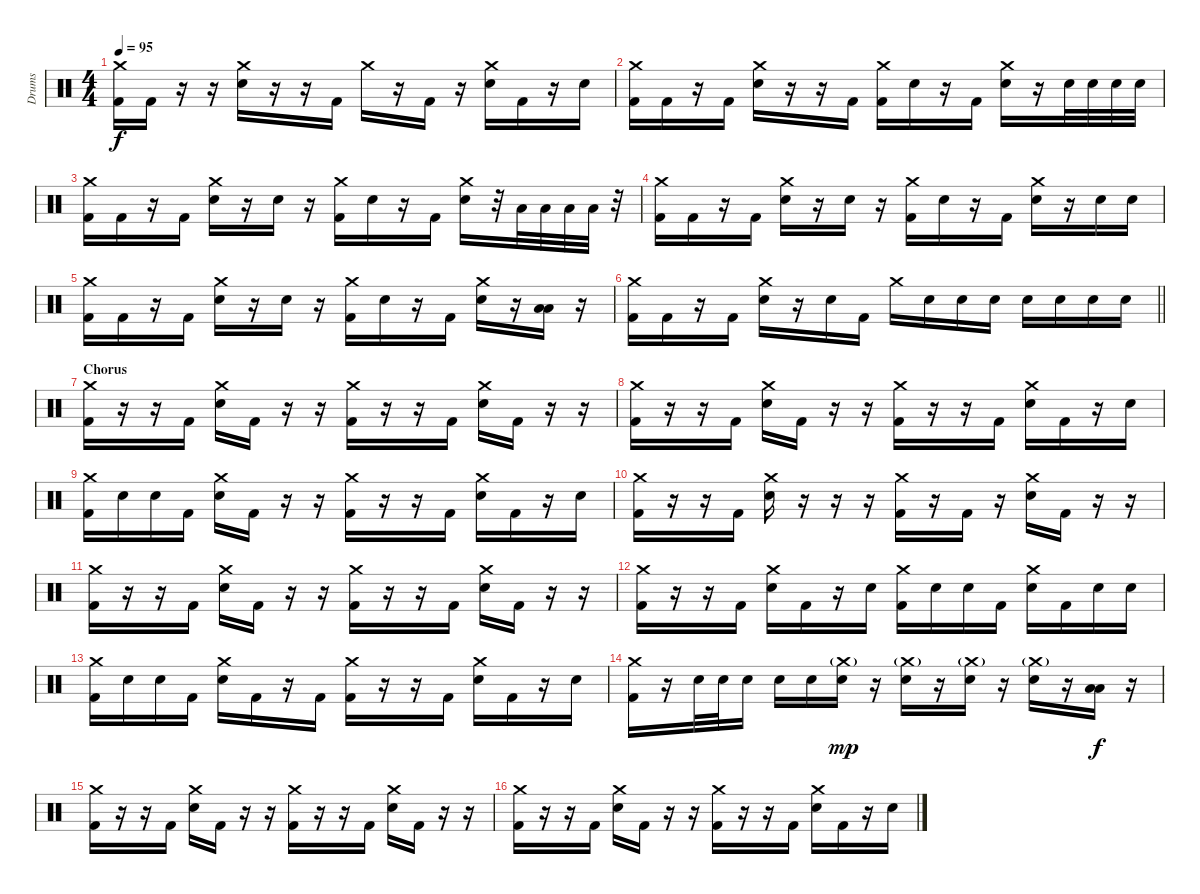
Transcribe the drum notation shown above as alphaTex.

\track ("Drums" "Drums") {instrument percussion}
\staff {score}
\articulation defaults
\ts (4 4)
\tempo 95
\clef neutral
\ks c
("Crash medium (hit)" "Kick (hit) 2").16{dy f} "Kick (hit) 2".16 r.16 r.16 ("Crash medium (hit)" "Electric Snare (hit)").16 r.16 r.16 "Kick (hit) 2".16 "Crash medium (hit)".16 r.16 "Kick (hit) 2".16 r.16 ("Crash medium (hit)" "Electric Snare (hit)").16 "Kick (hit) 2".16 r.16 "Electric Snare (hit)".16 |
("Crash medium (hit)" "Kick (hit) 2").16 "Kick (hit) 2".16 r.16 "Kick (hit) 2".16 ("Crash medium (hit)" "Electric Snare (hit)").16 r.16 r.16 "Kick (hit) 2".16 ("Crash medium (hit)" "Kick (hit) 2").16 "Electric Snare (hit)".16 r.16 "Kick (hit) 2".16 ("Crash medium (hit)" "Electric Snare (hit)").16 r.16 "Electric Snare (hit)".32 "Electric Snare (hit)".32 "Electric Snare (hit)".32 "Electric Snare (hit)".32 |
("Crash medium (hit)" "Kick (hit) 2").16 "Kick (hit) 2".16 r.16 "Kick (hit) 2".16 ("Crash medium (hit)" "Electric Snare (hit)").16 r.16 "Electric Snare (hit)".16 r.16 ("Crash medium (hit)" "Kick (hit) 2").16 "Electric Snare (hit)".16 r.16 "Kick (hit) 2".16 ("Crash medium (hit)" "Electric Snare (hit)").16 r.32 "Low Tom (hit)".32 "Low Tom (hit)".32 "Low Tom (hit)".32 "Low Tom (hit)".32 r.32 |
("Crash medium (hit)" "Kick (hit) 2").16 "Kick (hit) 2".16 r.16 "Kick (hit) 2".16 ("Crash medium (hit)" "Electric Snare (hit)").16 r.16 "Electric Snare (hit)".16 r.16 ("Crash medium (hit)" "Kick (hit) 2").16 "Electric Snare (hit)".16 r.16 "Kick (hit) 2".16 ("Crash medium (hit)" "Electric Snare (hit)").16 r.16 "Electric Snare (hit)".16 "Electric Snare (hit)".16 |
("Crash medium (hit)" "Kick (hit) 2").16 "Kick (hit) 2".16 r.16 "Kick (hit) 2".16 ("Crash medium (hit)" "Electric Snare (hit)").16 r.16 "Electric Snare (hit)".16 r.16 ("Crash medium (hit)" "Kick (hit) 2").16 "Electric Snare (hit)".16 r.16 "Kick (hit) 2".16 ("Crash medium (hit)" "Electric Snare (hit)").16 r.16 ("Low Tom (hit)" "Low Tom (hit)").16 r.16 |
\barLineRight lightlight
("Crash medium (hit)" "Kick (hit) 2").16 "Kick (hit) 2".16 r.16 "Kick (hit) 2".16 ("Crash medium (hit)" "Electric Snare (hit)").16 r.16 "Electric Snare (hit)".16 "Kick (hit) 2".16 "Crash medium (hit)".16 "Electric Snare (hit)".16 "Electric Snare (hit)".16 "Electric Snare (hit)".16 "Electric Snare (hit)".16 "Electric Snare (hit)".16 "Electric Snare (hit)".16 "Electric Snare (hit)".16 |
\section ("" "Chorus")
("Crash medium (hit)" "Kick (hit) 2").16 r.16 r.16 "Kick (hit) 2".16 ("Crash medium (hit)" "Electric Snare (hit)").16 "Kick (hit) 2".16 r.16 r.16 ("Crash medium (hit)" "Kick (hit) 2").16 r.16 r.16 "Kick (hit) 2".16 ("Crash medium (hit)" "Electric Snare (hit)").16 "Kick (hit) 2".16 r.16 r.16 |
("Crash medium (hit)" "Kick (hit) 2").16 r.16 r.16 "Kick (hit) 2".16 ("Crash medium (hit)" "Electric Snare (hit)").16 "Kick (hit) 2".16 r.16 r.16 ("Crash medium (hit)" "Kick (hit) 2").16 r.16 r.16 "Kick (hit) 2".16 ("Crash medium (hit)" "Electric Snare (hit)").16 "Kick (hit) 2".16 r.16 "Electric Snare (hit)".16 |
("Crash medium (hit)" "Kick (hit) 2").16 "Electric Snare (hit)".16 "Electric Snare (hit)".16 "Kick (hit) 2".16 ("Crash medium (hit)" "Electric Snare (hit)").16 "Kick (hit) 2".16 r.16 r.16 ("Crash medium (hit)" "Kick (hit) 2").16 r.16 r.16 "Kick (hit) 2".16 ("Crash medium (hit)" "Electric Snare (hit)").16 "Kick (hit) 2".16 r.16 "Electric Snare (hit)".16 |
("Crash medium (hit)" "Kick (hit) 2").16 r.16 r.16 "Kick (hit) 2".16 ("Crash medium (hit)" "Electric Snare (hit)").16 r.16 r.16 r.16 ("Crash medium (hit)" "Kick (hit) 2").16 r.16 "Kick (hit) 2".16 r.16 ("Crash medium (hit)" "Electric Snare (hit)").16 "Kick (hit) 2".16 r.16 r.16 |
("Crash medium (hit)" "Kick (hit) 2").16 r.16 r.16 "Kick (hit) 2".16 ("Crash medium (hit)" "Electric Snare (hit)").16 "Kick (hit) 2".16 r.16 r.16 ("Crash medium (hit)" "Kick (hit) 2").16 r.16 r.16 "Kick (hit) 2".16 ("Crash medium (hit)" "Electric Snare (hit)").16 "Kick (hit) 2".16 r.16 r.16 |
("Crash medium (hit)" "Kick (hit) 2").16 r.16 r.16 "Kick (hit) 2".16 ("Crash medium (hit)" "Electric Snare (hit)").16 "Kick (hit) 2".16 r.16 "Electric Snare (hit)".16 ("Crash medium (hit)" "Kick (hit) 2").16 "Electric Snare (hit)".16 "Electric Snare (hit)".16 "Kick (hit) 2".16 ("Crash medium (hit)" "Electric Snare (hit)").16 "Kick (hit) 2".16 "Electric Snare (hit)".16 "Electric Snare (hit)".16 |
("Crash medium (hit)" "Kick (hit) 2").16 "Electric Snare (hit)".16 "Electric Snare (hit)".16 "Kick (hit) 2".16 ("Crash medium (hit)" "Electric Snare (hit)").16 "Kick (hit) 2".16 r.16 "Kick (hit) 2".16 ("Crash medium (hit)" "Kick (hit) 2").16 r.16 r.16 "Kick (hit) 2".16 ("Crash medium (hit)" "Electric Snare (hit)").16 "Kick (hit) 2".16 r.16 "Electric Snare (hit)".16 |
("Crash medium (hit)" "Kick (hit) 2").16 r.16 "Electric Snare (hit)".32 "Electric Snare (hit)".32 "Electric Snare (hit)".16 "Electric Snare (hit)".16 "Electric Snare (hit)".16 ("Crash medium (hit)"{g} "Electric Snare (hit)").16{dy mp} r.16 ("Crash medium (hit)"{g} "Electric Snare (hit)").16 r.16 ("Crash medium (hit)"{g} "Electric Snare (hit)").16 r.16 ("Crash medium (hit)"{g} "Electric Snare (hit)").16 r.16 ("Low Tom (hit)" "Low Tom (hit)").16{dy f} r.16 |
("Crash medium (hit)" "Kick (hit) 2").16 r.16 r.16 "Kick (hit) 2".16 ("Crash medium (hit)" "Electric Snare (hit)").16 "Kick (hit) 2".16 r.16 r.16 ("Crash medium (hit)" "Kick (hit) 2").16 r.16 r.16 "Kick (hit) 2".16 ("Crash medium (hit)" "Electric Snare (hit)").16 "Kick (hit) 2".16 r.16 r.16 |
("Crash medium (hit)" "Kick (hit) 2").16 r.16 r.16 "Kick (hit) 2".16 ("Crash medium (hit)" "Electric Snare (hit)").16 "Kick (hit) 2".16 r.16 r.16 ("Crash medium (hit)" "Kick (hit) 2").16 r.16 r.16 "Kick (hit) 2".16 ("Crash medium (hit)" "Electric Snare (hit)").16 "Kick (hit) 2".16 r.16 "Electric Snare (hit)".16
